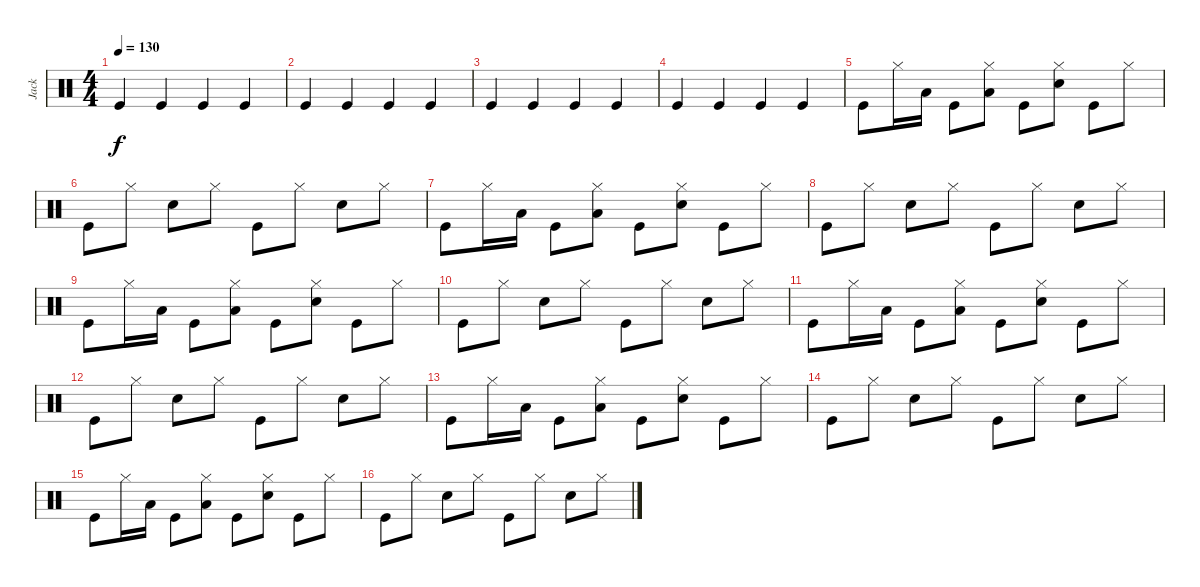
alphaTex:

\track ("Jack" "Jack") {instrument percussion}
\staff {score}
\articulation defaults
\ts (4 4)
\tempo 130
\clef neutral
\ks c "Kick (hit)".4{dy f} "Kick (hit)".4 "Kick (hit)".4 "Kick (hit)".4
|
"Kick (hit)".4 "Kick (hit)".4 "Kick (hit)".4 "Kick (hit)".4 |
"Kick (hit)".4 "Kick (hit)".4 "Kick (hit)".4 "Kick (hit)".4 |
"Kick (hit)".4 "Kick (hit)".4 "Kick (hit)".4 "Kick (hit)".4 |
"Kick (hit)".8 "Hi-Hat (closed)".16 "Low Floor Tom (hit)".16 "Kick (hit)".8 ("Hi-Hat (closed)" "Low Floor Tom (hit)").8 "Kick (hit)".8 ("Hi-Hat (closed)" "Electric Snare (hit)").8 "Kick (hit)".8 "Hi-Hat (closed)".8 |
"Kick (hit)".8 "Hi-Hat (closed)".8 "Electric Snare (hit)".8 "Hi-Hat (closed)".8 "Kick (hit)".8 "Hi-Hat (closed)".8 "Electric Snare (hit)".8 "Hi-Hat (closed)".8 |
"Kick (hit)".8 "Hi-Hat (closed)".16 "Low Floor Tom (hit)".16 "Kick (hit)".8 ("Hi-Hat (closed)" "Low Floor Tom (hit)").8 "Kick (hit)".8 ("Hi-Hat (closed)" "Electric Snare (hit)").8 "Kick (hit)".8 "Hi-Hat (closed)".8 |
"Kick (hit)".8 "Hi-Hat (closed)".8 "Electric Snare (hit)".8 "Hi-Hat (closed)".8 "Kick (hit)".8 "Hi-Hat (closed)".8 "Electric Snare (hit)".8 "Hi-Hat (closed)".8 |
"Kick (hit)".8 "Hi-Hat (closed)".16 "Low Floor Tom (hit)".16 "Kick (hit)".8 ("Hi-Hat (closed)" "Low Floor Tom (hit)").8 "Kick (hit)".8 ("Hi-Hat (closed)" "Electric Snare (hit)").8 "Kick (hit)".8 "Hi-Hat (closed)".8 |
"Kick (hit)".8 "Hi-Hat (closed)".8 "Electric Snare (hit)".8 "Hi-Hat (closed)".8 "Kick (hit)".8 "Hi-Hat (closed)".8 "Electric Snare (hit)".8 "Hi-Hat (closed)".8 |
"Kick (hit)".8 "Hi-Hat (closed)".16 "Low Floor Tom (hit)".16 "Kick (hit)".8 ("Hi-Hat (closed)" "Low Floor Tom (hit)").8 "Kick (hit)".8 ("Hi-Hat (closed)" "Electric Snare (hit)").8 "Kick (hit)".8 "Hi-Hat (closed)".8 |
"Kick (hit)".8 "Hi-Hat (closed)".8 "Electric Snare (hit)".8 "Hi-Hat (closed)".8 "Kick (hit)".8 "Hi-Hat (closed)".8 "Electric Snare (hit)".8 "Hi-Hat (closed)".8 |
"Kick (hit)".8 "Hi-Hat (closed)".16 "Low Floor Tom (hit)".16 "Kick (hit)".8 ("Hi-Hat (closed)" "Low Floor Tom (hit)").8 "Kick (hit)".8 ("Hi-Hat (closed)" "Electric Snare (hit)").8 "Kick (hit)".8 "Hi-Hat (closed)".8 |
"Kick (hit)".8 "Hi-Hat (closed)".8 "Electric Snare (hit)".8 "Hi-Hat (closed)".8 "Kick (hit)".8 "Hi-Hat (closed)".8 "Electric Snare (hit)".8 "Hi-Hat (closed)".8 |
"Kick (hit)".8 "Hi-Hat (closed)".16 "Low Floor Tom (hit)".16 "Kick (hit)".8 ("Hi-Hat (closed)" "Low Floor Tom (hit)").8 "Kick (hit)".8 ("Hi-Hat (closed)" "Electric Snare (hit)").8 "Kick (hit)".8 "Hi-Hat (closed)".8 |
"Kick (hit)".8 "Hi-Hat (closed)".8 "Electric Snare (hit)".8 "Hi-Hat (closed)".8 "Kick (hit)".8 "Hi-Hat (closed)".8 "Electric Snare (hit)".8 "Hi-Hat (closed)".8
